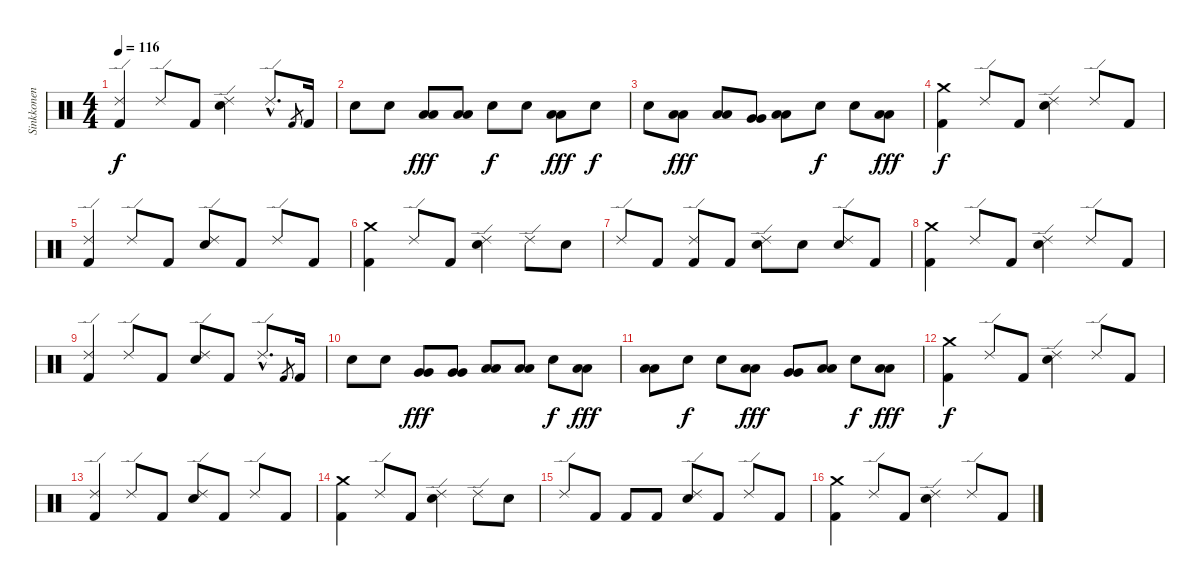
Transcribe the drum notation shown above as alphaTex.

\track ("Sinkkonen" "Sinkkonen") {instrument percussion}
\staff {score}
\articulation defaults
\ts (4 4)
\tempo 116
\clef neutral
\ks c
("Kick (hit) 2" "Ride (edge) 2").4{dy f} "Ride (edge) 2".8 "Kick (hit) 2".8 ("Ride (edge) 2" "Snare (hit) 2").4 "Ride (edge) 2"{hac}.8{d} "Kick (hit) 2".8{gr} "Kick (hit) 2".16 |
"Snare (hit) 2".8 "Snare (hit) 2".8 ("Low Tom (hit)" "Low Tom (hit)").8{dy fff} ("Low Tom (hit)" "Low Tom (hit)").8 "Snare (hit) 2".8{dy f} "Snare (hit) 2".8 ("Low Tom (hit)" "Low Tom (hit)").8{dy fff} "Snare (hit) 2".8{dy f} |
"Snare (hit) 2".8 ("Low Tom (hit)" "Low Tom (hit)").8{dy fff} ("Low Tom (hit)" "Low Tom (hit)").8 ("Very Low Tom (hit)" "Very Low Tom (hit)").8 ("Low Floor Tom (hit)" "Low Floor Tom (hit)").8 "Snare (hit) 2".8{dy f} "Snare (hit) 2".8 ("Low Floor Tom (hit)" "Low Floor Tom (hit)").8{dy fff} |
("Kick (hit) 2" "Crash medium (hit)").4{dy f} "Ride (edge) 2".8 "Kick (hit) 2".8 ("Ride (edge) 2" "Snare (hit) 2").4 "Ride (edge) 2".8 "Kick (hit) 2".8 |
("Kick (hit) 2" "Ride (edge) 2").4 "Ride (edge) 2".8 "Kick (hit) 2".8 ("Ride (edge) 2" "Snare (hit) 2").8 "Kick (hit) 2".8 "Ride (edge) 2".8 "Kick (hit) 2".8 |
("Kick (hit) 2" "Crash medium (hit)").4 "Ride (edge) 2".8 "Kick (hit) 2".8 ("Ride (edge) 2" "Snare (hit) 2").4 "Ride (edge) 2".8 "Snare (hit) 2".8 |
"Ride (edge) 2".8 "Kick (hit) 2".8 ("Kick (hit) 2" "Ride (edge) 2").8 "Kick (hit) 2".8 ("Ride (edge) 2" "Snare (hit) 2").8 "Snare (hit) 2".8 ("Ride (edge) 2" "Snare (hit) 2").8 "Kick (hit) 2".8 |
("Kick (hit) 2" "Crash medium (hit)").4 "Ride (edge) 2".8 "Kick (hit) 2".8 ("Ride (edge) 2" "Snare (hit) 2").4 "Ride (edge) 2".8 "Kick (hit) 2".8 |
("Kick (hit) 2" "Ride (edge) 2").4 "Ride (edge) 2".8 "Kick (hit) 2".8 ("Ride (edge) 2" "Snare (hit) 2").8 "Kick (hit) 2".8 "Ride (edge) 2"{hac}.8{d} "Kick (hit) 2".8{gr} "Kick (hit) 2".16 |
"Snare (hit) 2".8 "Snare (hit) 2".8 ("Very Low Tom (hit)" "Very Low Tom (hit)").8{dy fff} ("Very Low Tom (hit)" "Very Low Tom (hit)").8 ("Low Floor Tom (hit)" "Low Floor Tom (hit)").8 ("Low Floor Tom (hit)" "Low Floor Tom (hit)").8 "Snare (hit) 2".8{dy f} ("Low Floor Tom (hit)" "Low Floor Tom (hit)").8{dy fff} |
("Low Floor Tom (hit)" "Low Floor Tom (hit)").8 "Snare (hit) 2".8{dy f} "Snare (hit) 2".8 ("Low Floor Tom (hit)" "Low Floor Tom (hit)").8{dy fff} ("Very Low Tom (hit)" "Very Low Tom (hit)").8 ("Low Floor Tom (hit)" "Low Floor Tom (hit)").8 "Snare (hit) 2".8{dy f} ("Low Floor Tom (hit)" "Low Floor Tom (hit)").8{dy fff} |
("Kick (hit) 2" "Crash medium (hit)").4{dy f} "Ride (edge) 2".8 "Kick (hit) 2".8 ("Ride (edge) 2" "Snare (hit) 2").4 "Ride (edge) 2".8 "Kick (hit) 2".8 |
("Kick (hit) 2" "Ride (edge) 2").4 "Ride (edge) 2".8 "Kick (hit) 2".8 ("Ride (edge) 2" "Snare (hit) 2").8 "Kick (hit) 2".8 "Ride (edge) 2".8 "Kick (hit) 2".8 |
("Kick (hit) 2" "Crash medium (hit)").4 "Ride (edge) 2".8 "Kick (hit) 2".8 ("Ride (edge) 2" "Snare (hit) 2").4 "Ride (edge) 2".8 "Snare (hit) 2".8 |
"Ride (edge) 2".8 "Kick (hit) 2".8 "Kick (hit) 2".8 "Kick (hit) 2".8 ("Ride (edge) 2" "Snare (hit) 2").8 "Kick (hit) 2".8 "Ride (edge) 2".8 "Kick (hit) 2".8 |
("Kick (hit) 2" "Crash medium (hit)").4 "Ride (edge) 2".8 "Kick (hit) 2".8 ("Ride (edge) 2" "Snare (hit) 2").4 "Ride (edge) 2".8 "Kick (hit) 2".8
